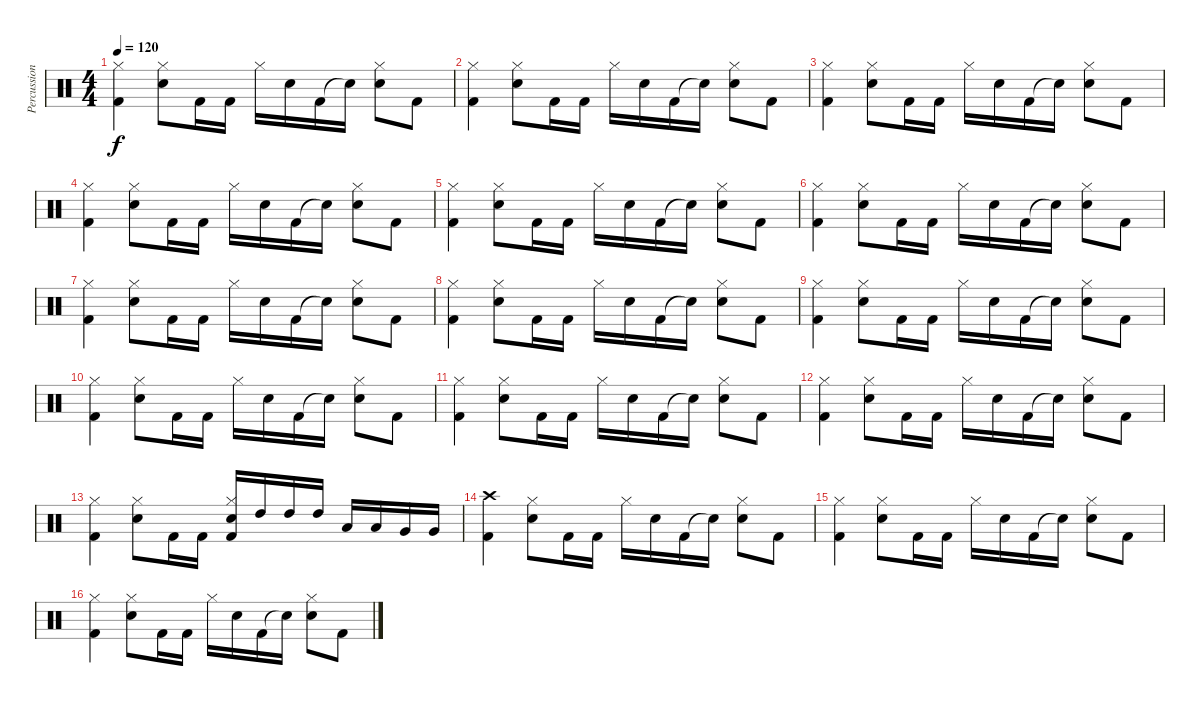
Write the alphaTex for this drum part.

\track ("Percussions" "Percussion") {instrument percussion}
\staff {score}
\articulation defaults
\ts (4 4)
\tempo 120
\clef neutral
\ks c
("Kick (hit) 2" "Hi-Hat (closed)").4{dy f} ("Electric Snare (hit)" "Hi-Hat (closed)").8 "Kick (hit) 2".16 "Kick (hit) 2".16 "Hi-Hat (closed)".16 "Electric Snare (hit)".16 "Kick (hit) 2".16 "Snare (hit)"{t}.16 ("Electric Snare (hit)" "Hi-Hat (closed)").8 "Kick (hit) 2".8 |
("Kick (hit) 2" "Hi-Hat (closed)").4 ("Electric Snare (hit)" "Hi-Hat (closed)").8 "Kick (hit) 2".16 "Kick (hit) 2".16 "Hi-Hat (closed)".16 "Electric Snare (hit)".16 "Kick (hit) 2".16 "Snare (hit)"{t}.16 ("Electric Snare (hit)" "Hi-Hat (closed)").8 "Kick (hit) 2".8 |
("Kick (hit) 2" "Hi-Hat (closed)").4 ("Electric Snare (hit)" "Hi-Hat (closed)").8 "Kick (hit) 2".16 "Kick (hit) 2".16 "Hi-Hat (closed)".16 "Electric Snare (hit)".16 "Kick (hit) 2".16 "Snare (hit)"{t}.16 ("Electric Snare (hit)" "Hi-Hat (closed)").8 "Kick (hit) 2".8 |
("Kick (hit) 2" "Hi-Hat (closed)").4 ("Electric Snare (hit)" "Hi-Hat (closed)").8 "Kick (hit) 2".16 "Kick (hit) 2".16 "Hi-Hat (closed)".16 "Electric Snare (hit)".16 "Kick (hit) 2".16 "Snare (hit)"{t}.16 ("Electric Snare (hit)" "Hi-Hat (closed)").8 "Kick (hit) 2".8 |
("Kick (hit) 2" "Hi-Hat (closed)").4 ("Electric Snare (hit)" "Hi-Hat (closed)").8 "Kick (hit) 2".16 "Kick (hit) 2".16 "Hi-Hat (closed)".16 "Electric Snare (hit)".16 "Kick (hit) 2".16 "Snare (hit)"{t}.16 ("Electric Snare (hit)" "Hi-Hat (closed)").8 "Kick (hit) 2".8 |
("Kick (hit) 2" "Hi-Hat (closed)").4 ("Electric Snare (hit)" "Hi-Hat (closed)").8 "Kick (hit) 2".16 "Kick (hit) 2".16 "Hi-Hat (closed)".16 "Electric Snare (hit)".16 "Kick (hit) 2".16 "Snare (hit)"{t}.16 ("Electric Snare (hit)" "Hi-Hat (closed)").8 "Kick (hit) 2".8 |
("Kick (hit) 2" "Hi-Hat (closed)").4 ("Electric Snare (hit)" "Hi-Hat (closed)").8 "Kick (hit) 2".16 "Kick (hit) 2".16 "Hi-Hat (closed)".16 "Electric Snare (hit)".16 "Kick (hit) 2".16 "Snare (hit)"{t}.16 ("Electric Snare (hit)" "Hi-Hat (closed)").8 "Kick (hit) 2".8 |
("Kick (hit) 2" "Hi-Hat (closed)").4 ("Electric Snare (hit)" "Hi-Hat (closed)").8 "Kick (hit) 2".16 "Kick (hit) 2".16 "Hi-Hat (closed)".16 "Electric Snare (hit)".16 "Kick (hit) 2".16 "Snare (hit)"{t}.16 ("Electric Snare (hit)" "Hi-Hat (closed)").8 "Kick (hit) 2".8 |
("Kick (hit) 2" "Hi-Hat (closed)").4 ("Electric Snare (hit)" "Hi-Hat (closed)").8 "Kick (hit) 2".16 "Kick (hit) 2".16 "Hi-Hat (closed)".16 "Electric Snare (hit)".16 "Kick (hit) 2".16 "Snare (hit)"{t}.16 ("Electric Snare (hit)" "Hi-Hat (closed)").8 "Kick (hit) 2".8 |
("Kick (hit) 2" "Hi-Hat (closed)").4 ("Electric Snare (hit)" "Hi-Hat (closed)").8 "Kick (hit) 2".16 "Kick (hit) 2".16 "Hi-Hat (closed)".16 "Electric Snare (hit)".16 "Kick (hit) 2".16 "Snare (hit)"{t}.16 ("Electric Snare (hit)" "Hi-Hat (closed)").8 "Kick (hit) 2".8 |
("Kick (hit) 2" "Hi-Hat (closed)").4 ("Electric Snare (hit)" "Hi-Hat (closed)").8 "Kick (hit) 2".16 "Kick (hit) 2".16 "Hi-Hat (closed)".16 "Electric Snare (hit)".16 "Kick (hit) 2".16 "Snare (hit)"{t}.16 ("Electric Snare (hit)" "Hi-Hat (closed)").8 "Kick (hit) 2".8 |
("Kick (hit) 2" "Hi-Hat (closed)").4 ("Electric Snare (hit)" "Hi-Hat (closed)").8 "Kick (hit) 2".16 "Kick (hit) 2".16 "Hi-Hat (closed)".16 "Electric Snare (hit)".16 "Kick (hit) 2".16 "Snare (hit)"{t}.16 ("Electric Snare (hit)" "Hi-Hat (closed)").8 "Kick (hit) 2".8 |
("Kick (hit) 2" "Hi-Hat (closed)").4 ("Electric Snare (hit)" "Hi-Hat (closed)").8 "Kick (hit) 2".16 "Kick (hit) 2".16 ("Kick (hit) 2" "Electric Snare (hit)" "Hi-Hat (closed)").16 "High Tom (hit)".16 "High Tom (hit)".16 "High Tom (hit)".16 "Low Tom (hit)".16 "Low Tom (hit)".16 "Very Low Tom (hit)".16 "Very Low Tom (hit)".16 |
("Kick (hit) 2" "Crash high (hit)").4 ("Electric Snare (hit)" "Hi-Hat (closed)").8 "Kick (hit) 2".16 "Kick (hit) 2".16 "Hi-Hat (closed)".16 "Electric Snare (hit)".16 "Kick (hit) 2".16 "Snare (hit)"{t}.16 ("Electric Snare (hit)" "Hi-Hat (closed)").8 "Kick (hit) 2".8 |
("Kick (hit) 2" "Hi-Hat (closed)").4 ("Electric Snare (hit)" "Hi-Hat (closed)").8 "Kick (hit) 2".16 "Kick (hit) 2".16 "Hi-Hat (closed)".16 "Electric Snare (hit)".16 "Kick (hit) 2".16 "Snare (hit)"{t}.16 ("Electric Snare (hit)" "Hi-Hat (closed)").8 "Kick (hit) 2".8 |
("Kick (hit) 2" "Hi-Hat (closed)").4 ("Electric Snare (hit)" "Hi-Hat (closed)").8 "Kick (hit) 2".16 "Kick (hit) 2".16 "Hi-Hat (closed)".16 "Electric Snare (hit)".16 "Kick (hit) 2".16 "Snare (hit)"{t}.16 ("Electric Snare (hit)" "Hi-Hat (closed)").8 "Kick (hit) 2".8
